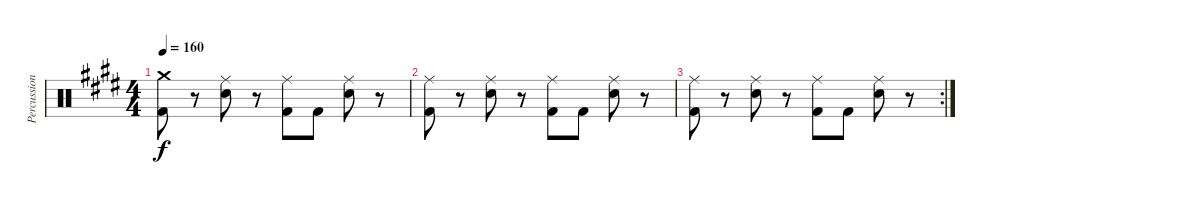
\track ("Percussion" "Percussion") {instrument percussion}
\staff {score}
\articulation defaults
\ts (4 4)
\tempo 160
\clef neutral
\ks e
("Crash medium (hit)" "Kick (hit) 2").8{dy f} r.8 ("Ride (middle)" "Snare (hit) 2").8 r.8 ("Ride (middle)" "Kick (hit) 2").8 "Kick (hit) 2".8 ("Ride (middle)" "Snare (hit) 2").8 r.8 |
("Ride (middle)" "Kick (hit) 2").8 r.8 ("Ride (middle)" "Snare (hit) 2").8 r.8 ("Ride (middle)" "Kick (hit) 2").8 "Kick (hit) 2".8 ("Ride (middle)" "Snare (hit) 2").8 r.8 |
\rc 2
("Ride (middle)" "Kick (hit) 2").8 r.8 ("Ride (middle)" "Snare (hit) 2").8 r.8 ("Ride (middle)" "Kick (hit) 2").8 "Kick (hit) 2".8 ("Ride (middle)" "Snare (hit) 2").8 r.8
